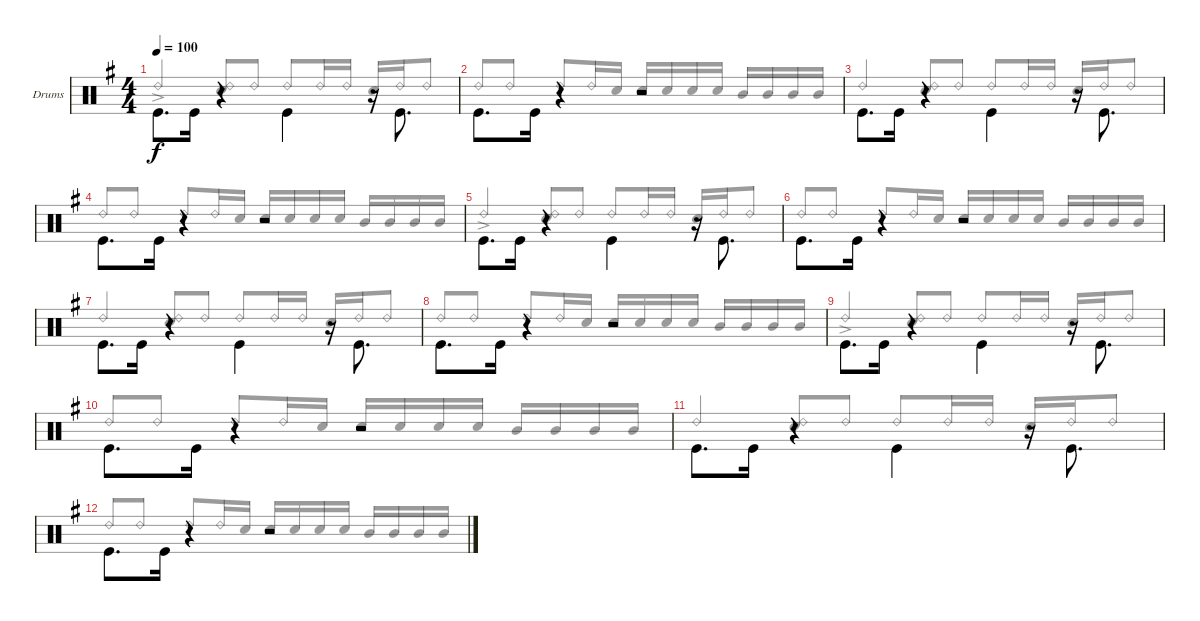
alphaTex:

\defaultSystemsLayout 4
\bracketExtendMode groupsimilarinstruments
\firstSystemTrackNameOrientation horizontal
\otherSystemsTrackNameOrientation horizontal
\track ("Drumkit" "Drums") {instrument percussion}
\staff {score}
\articulation defaults
\voice
\ts (4 4)
\scale
0.5
\tempo 100
\accidentals auto
\clef neutral
\ottava regular
\simile none
\scale
1.04288
\ks g "Kick (hit)".8{d dy f beam invert} "Kick (hit)".16
r.4{beam invert} "Kick (hit)".4{beam invert} r.16{beam invert} "Kick (hit)".8{d beam invert} |
\scale
0.5
\scale
0.957125 "Kick (hit)".8{d beam invert} "Kick (hit)".16 r.4{beam invert} r.2 |
\scale
0.5
\scale
1.04288 "Kick (hit)".8{d beam invert} "Kick (hit)".16 r.4{beam invert} "Kick (hit)".4{beam invert} r.16{beam invert} "Kick (hit)".8{d beam invert} |
\scale
0.5
\scale
0.957125 "Kick (hit)".8{d beam invert} "Kick (hit)".16 r.4{beam invert} r.2 |
\scale
0.5
\scale
1.04288 "Kick (hit)".8{d beam invert} "Kick (hit)".16 r.4{beam invert} "Kick (hit)".4{beam invert} r.16{beam invert} "Kick (hit)".8{d beam invert} |
\scale
0.5
\scale
0.957125 "Kick (hit)".8{d beam invert} "Kick (hit)".16 r.4{beam invert} r.2 |
\scale
0.5
\scale
1.04288 "Kick (hit)".8{d beam invert} "Kick (hit)".16 r.4{beam invert} "Kick (hit)".4{beam invert} r.16{beam invert} "Kick (hit)".8{d beam invert} |
\scale
0.5
\scale
0.957125 "Kick (hit)".8{d beam invert} "Kick (hit)".16 r.4{beam invert} r.2 |
\scale
0.5
\scale
1.04288 "Kick (hit)".8{d beam invert} "Kick (hit)".16 r.4{beam invert} "Kick (hit)".4{beam invert} r.16{beam invert} "Kick (hit)".8{d beam invert} |
\scale
0.5
\scale
0.957125 "Kick (hit)".8{d beam invert} "Kick (hit)".16 r.4{beam invert} r.2 |
\scale
0.5
\scale
1.04288 "Kick (hit)".8{d beam invert} "Kick (hit)".16 r.4{beam invert} "Kick (hit)".4{beam invert} r.16{beam invert} "Kick (hit)".8{d beam invert} |
\scale
0.5
\scale
0.957125 "Kick (hit)".8{d beam invert} "Kick (hit)".16 r.4{beam invert} r.2
\voice
\clef neutral
\ottava regular
\simile none
\scale
1.04288
\ks g "Ride (bell) 2"{ac}.4{dy f beam invert}
("Ride (bell) 2" "Snare (hit) 2").8 "Ride (bell) 2".8{beam invert} "Ride (bell) 2".8{beam invert} "Ride (bell) 2".16 "Ride (bell) 2".16 "Snare (hit) 2".16{beam invert} "Ride (bell) 2".16{beam invert} "Ride (bell) 2".8{beam invert} |
\scale
0.957125 "Ride (bell) 2".8 "Ride (bell) 2".8{beam invert} "Ride (bell) 2".8{beam invert} "Ride (bell) 2".16 "Snare (hit) 2".16 "Snare (hit) 2".16{beam invert} "Snare (hit) 2".16 "Snare (hit) 2".16 "Snare (hit) 2".16 "Mid Tom (hit)".16{beam invert} "Mid Tom (hit)".16 "Mid Tom (hit)".16 "Mid Tom (hit)".16 |
\scale
1.04288 "Ride (bell) 2".4{beam invert} ("Ride (bell) 2" "Snare (hit) 2").8 "Ride (bell) 2".8{beam invert} "Ride (bell) 2".8{beam invert} "Ride (bell) 2".16 "Ride (bell) 2".16 "Snare (hit) 2".16{beam invert} "Ride (bell) 2".16{beam invert} "Ride (bell) 2".8{beam invert} |
\scale
0.957125 "Ride (bell) 2".8 "Ride (bell) 2".8{beam invert} "Ride (bell) 2".8{beam invert} "Ride (bell) 2".16 "Snare (hit) 2".16 "Snare (hit) 2".16{beam invert} "Snare (hit) 2".16 "Snare (hit) 2".16 "Snare (hit) 2".16 "Mid Tom (hit)".16{beam invert} "Mid Tom (hit)".16 "Mid Tom (hit)".16 "Mid Tom (hit)".16 |
\scale
1.04288 "Ride (bell) 2"{ac}.4{beam invert} ("Ride (bell) 2" "Snare (hit) 2").8 "Ride (bell) 2".8{beam invert} "Ride (bell) 2".8{beam invert} "Ride (bell) 2".16 "Ride (bell) 2".16 "Snare (hit) 2".16{beam invert} "Ride (bell) 2".16{beam invert} "Ride (bell) 2".8{beam invert} |
\scale
0.957125 "Ride (bell) 2".8 "Ride (bell) 2".8{beam invert} "Ride (bell) 2".8{beam invert} "Ride (bell) 2".16 "Snare (hit) 2".16 "Snare (hit) 2".16{beam invert} "Snare (hit) 2".16 "Snare (hit) 2".16 "Snare (hit) 2".16 "Mid Tom (hit)".16{beam invert} "Mid Tom (hit)".16 "Mid Tom (hit)".16 "Mid Tom (hit)".16 |
\scale
1.04288 "Ride (bell) 2".4{beam invert} ("Ride (bell) 2" "Snare (hit) 2").8 "Ride (bell) 2".8{beam invert} "Ride (bell) 2".8{beam invert} "Ride (bell) 2".16 "Ride (bell) 2".16 "Snare (hit) 2".16{beam invert} "Ride (bell) 2".16{beam invert} "Ride (bell) 2".8{beam invert} |
\scale
0.957125 "Ride (bell) 2".8 "Ride (bell) 2".8{beam invert} "Ride (bell) 2".8{beam invert} "Ride (bell) 2".16 "Snare (hit) 2".16 "Snare (hit) 2".16{beam invert} "Snare (hit) 2".16 "Snare (hit) 2".16 "Snare (hit) 2".16 "Mid Tom (hit)".16{beam invert} "Mid Tom (hit)".16 "Mid Tom (hit)".16 "Mid Tom (hit)".16 |
\scale
1.04288 "Ride (bell) 2"{ac}.4{beam invert} ("Ride (bell) 2" "Snare (hit) 2").8 "Ride (bell) 2".8{beam invert} "Ride (bell) 2".8{beam invert} "Ride (bell) 2".16 "Ride (bell) 2".16 "Snare (hit) 2".16{beam invert} "Ride (bell) 2".16{beam invert} "Ride (bell) 2".8{beam invert} |
\scale
0.957125 "Ride (bell) 2".8 "Ride (bell) 2".8{beam invert} "Ride (bell) 2".8{beam invert} "Ride (bell) 2".16 "Snare (hit) 2".16 "Snare (hit) 2".16{beam invert} "Snare (hit) 2".16 "Snare (hit) 2".16 "Snare (hit) 2".16 "Mid Tom (hit)".16{beam invert} "Mid Tom (hit)".16 "Mid Tom (hit)".16 "Mid Tom (hit)".16 |
\scale
1.04288 "Ride (bell) 2".4{beam invert} ("Ride (bell) 2" "Snare (hit) 2").8 "Ride (bell) 2".8{beam invert} "Ride (bell) 2".8{beam invert} "Ride (bell) 2".16 "Ride (bell) 2".16 "Snare (hit) 2".16{beam invert} "Ride (bell) 2".16{beam invert} "Ride (bell) 2".8{beam invert} |
\scale
0.957125 "Ride (bell) 2".8 "Ride (bell) 2".8{beam invert} "Ride (bell) 2".8{beam invert} "Ride (bell) 2".16 "Snare (hit) 2".16 "Snare (hit) 2".16{beam invert} "Snare (hit) 2".16 "Snare (hit) 2".16 "Snare (hit) 2".16 "Mid Tom (hit)".16{beam invert} "Mid Tom (hit)".16 "Mid Tom (hit)".16 "Mid Tom (hit)".16
